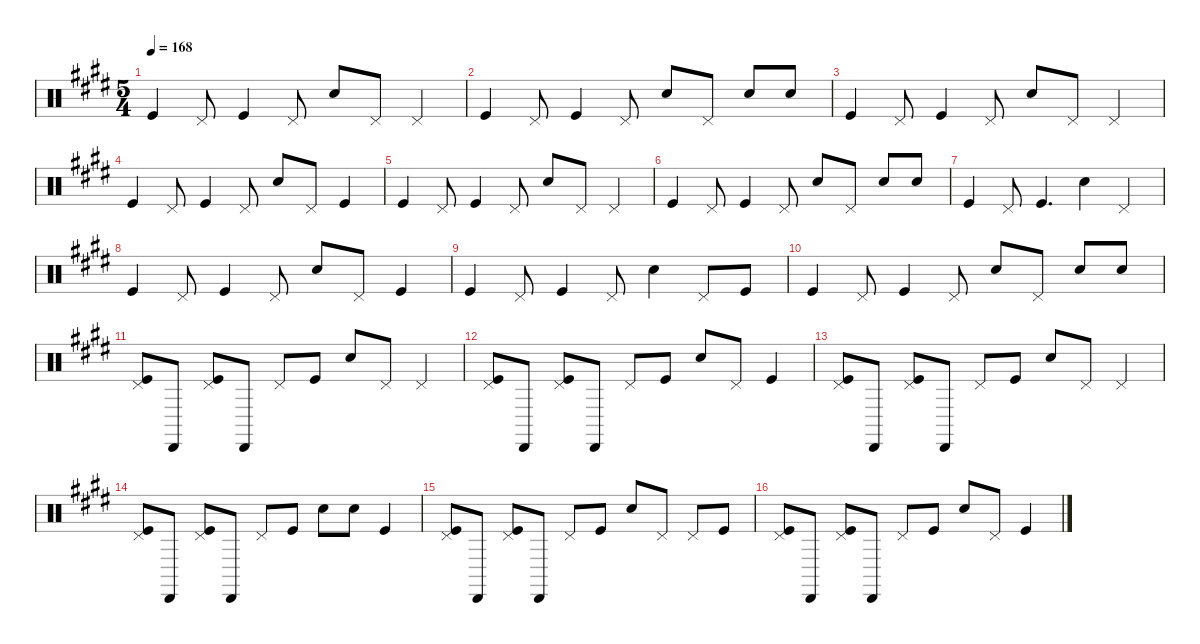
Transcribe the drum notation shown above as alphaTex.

\defaultSystemsLayout 4
\hideDynamics
\bracketExtendMode nobrackets
\singleTrackTrackNamePolicy hidden
\multiTrackTrackNamePolicy hidden
\firstSystemTrackNameMode fullname
\firstSystemTrackNameOrientation horizontal
\otherSystemsTrackNameOrientation horizontal
\track ("Percussion" "drm.") {instrument percussion}
\staff {score}
\articulation defaults
\ts (5 4)
\tempo 168
\clef neutral
\ks c#minor "Kick (hit)"{acc forcenatural}.4{dy f beam Up} "Pedal Hi-Hat (hit)"{acc forcenatural}.8{beam Up} "Kick (hit)"{acc forcenatural}.4{beam Up} "Pedal Hi-Hat (hit)"{acc forcenatural}.8{beam Up} "Snare (hit) 2"{acc forcenatural}.8{beam Up} "Pedal Hi-Hat (hit)"{acc forcenatural}.8{beam Up} "Pedal Hi-Hat (hit)"{acc forcenatural}.4{beam Up}
|
"Kick (hit)"{acc forcenatural}.4{beam Up} "Pedal Hi-Hat (hit)"{acc forcenatural}.8{beam Up} "Kick (hit)"{acc forcenatural}.4{beam Up} "Pedal Hi-Hat (hit)"{acc forcenatural}.8{beam Up} "Snare (hit) 2"{acc forcenatural}.8{beam Up} "Pedal Hi-Hat (hit)"{acc forcenatural}.8{beam Up} "Snare (hit) 2"{acc forcenatural}.8{beam Up} "Snare (hit) 2"{acc forcenatural}.8{beam Up} |
"Kick (hit)"{acc forcenatural}.4{beam Up} "Pedal Hi-Hat (hit)"{acc forcenatural}.8{beam Up} "Kick (hit)"{acc forcenatural}.4{beam Up} "Pedal Hi-Hat (hit)"{acc forcenatural}.8{beam Up} "Snare (hit) 2"{acc forcenatural}.8{beam Up} "Pedal Hi-Hat (hit)"{acc forcenatural}.8{beam Up} "Pedal Hi-Hat (hit)"{acc forcenatural}.4{beam Up} |
"Kick (hit)"{acc forcenatural}.4{beam Up} "Pedal Hi-Hat (hit)"{acc forcenatural}.8{beam Up} "Kick (hit)"{acc forcenatural}.4{beam Up} "Pedal Hi-Hat (hit)"{acc forcenatural}.8{beam Up} "Snare (hit) 2"{acc forcenatural}.8{beam Up} "Pedal Hi-Hat (hit)"{acc forcenatural}.8{beam Up} "Kick (hit)"{acc forcenatural}.4{beam Up} |
"Kick (hit)"{acc forcenatural}.4{beam Up} "Pedal Hi-Hat (hit)"{acc forcenatural}.8{beam Up} "Kick (hit)"{acc forcenatural}.4{beam Up} "Pedal Hi-Hat (hit)"{acc forcenatural}.8{beam Up} "Snare (hit) 2"{acc forcenatural}.8{beam Up} "Pedal Hi-Hat (hit)"{acc forcenatural}.8{beam Up} "Pedal Hi-Hat (hit)"{acc forcenatural}.4{beam Up} |
"Kick (hit)"{acc forcenatural}.4{beam Up} "Pedal Hi-Hat (hit)"{acc forcenatural}.8{beam Up} "Kick (hit)"{acc forcenatural}.4{beam Up} "Pedal Hi-Hat (hit)"{acc forcenatural}.8{beam Up} "Snare (hit) 2"{acc forcenatural}.8{beam Up} "Pedal Hi-Hat (hit)"{acc forcenatural}.8{beam Up} "Snare (hit) 2"{acc forcenatural}.8{beam Up} "Snare (hit) 2"{acc forcenatural}.8{beam Up} |
"Kick (hit)"{acc forcenatural}.4{beam Up} "Pedal Hi-Hat (hit)"{acc forcenatural}.8{beam Up} "Kick (hit)"{acc forcenatural}.4{d beam Up} "Snare (hit) 2"{acc forcenatural}.4{beam Down} "Pedal Hi-Hat (hit)"{acc forcenatural}.4{beam Up} |
"Kick (hit)"{acc forcenatural}.4{beam Up} "Pedal Hi-Hat (hit)"{acc forcenatural}.8{beam Up} "Kick (hit)"{acc forcenatural}.4{beam Up} "Pedal Hi-Hat (hit)"{acc forcenatural}.8{beam Up} "Snare (hit) 2"{acc forcenatural}.8{beam Up} "Pedal Hi-Hat (hit)"{acc forcenatural}.8{beam Up} "Kick (hit)"{acc forcenatural}.4{beam Up} |
"Kick (hit)"{acc forcenatural}.4{beam Up} "Pedal Hi-Hat (hit)"{acc forcenatural}.8{beam Up} "Kick (hit)"{acc forcenatural}.4{beam Up} "Pedal Hi-Hat (hit)"{acc forcenatural}.8{beam Up} "Snare (hit) 2"{acc forcenatural}.4{beam Down} "Pedal Hi-Hat (hit)"{acc forcenatural}.8{beam Up} "Kick (hit)"{acc forcenatural}.8{beam Up} |
"Kick (hit)"{acc forcenatural}.4{beam Up} "Pedal Hi-Hat (hit)"{acc forcenatural}.8{beam Up} "Kick (hit)"{acc forcenatural}.4{beam Up} "Pedal Hi-Hat (hit)"{acc forcenatural}.8{beam Up} "Snare (hit) 2"{acc forcenatural}.8{beam Up} "Pedal Hi-Hat (hit)"{acc forcenatural}.8{beam Up} "Snare (hit) 2"{acc forcenatural}.8{beam Up} "Snare (hit) 2"{acc forcenatural}.8{beam Up} |
("Kick (hit)"{acc forcenatural} "Pedal Hi-Hat (hit)"{acc forcenatural}).8{beam Up} "Cabasa (hit)"{acc forcenatural}.8{dy pp beam Up} ("Kick (hit)"{acc forcenatural} "Pedal Hi-Hat (hit)"{acc forcenatural}).8{dy f beam Up} "Cabasa (hit)"{acc forcenatural}.8{dy pp beam Up} "Pedal Hi-Hat (hit)"{acc forcenatural}.8{dy f beam Up} "Kick (hit)"{acc forcenatural}.8{beam Up} "Snare (hit) 2"{acc forcenatural}.8{beam Up} "Pedal Hi-Hat (hit)"{acc forcenatural}.8{beam Up} "Pedal Hi-Hat (hit)"{acc forcenatural}.4{beam Up} |
("Kick (hit)"{acc forcenatural} "Pedal Hi-Hat (hit)"{acc forcenatural}).8{beam Up} "Cabasa (hit)"{acc forcenatural}.8{dy pp beam Up} ("Kick (hit)"{acc forcenatural} "Pedal Hi-Hat (hit)"{acc forcenatural}).8{dy f beam Up} "Cabasa (hit)"{acc forcenatural}.8{dy pp beam Up} "Pedal Hi-Hat (hit)"{acc forcenatural}.8{dy f beam Up} "Kick (hit)"{acc forcenatural}.8{beam Up} "Snare (hit) 2"{acc forcenatural}.8{beam Up} "Pedal Hi-Hat (hit)"{acc forcenatural}.8{beam Up} "Kick (hit)"{acc forcenatural}.4{beam Up} |
("Kick (hit)"{acc forcenatural} "Pedal Hi-Hat (hit)"{acc forcenatural}).8{beam Up} "Cabasa (hit)"{acc forcenatural}.8{dy pp beam Up} ("Kick (hit)"{acc forcenatural} "Pedal Hi-Hat (hit)"{acc forcenatural}).8{dy f beam Up} "Cabasa (hit)"{acc forcenatural}.8{dy pp beam Up} "Pedal Hi-Hat (hit)"{acc forcenatural}.8{dy f beam Up} "Kick (hit)"{acc forcenatural}.8{beam Up} "Snare (hit) 2"{acc forcenatural}.8{beam Up} "Pedal Hi-Hat (hit)"{acc forcenatural}.8{beam Up} "Pedal Hi-Hat (hit)"{acc forcenatural}.4{beam Up} |
("Kick (hit)"{acc forcenatural} "Pedal Hi-Hat (hit)"{acc forcenatural}).8{beam Up} "Cabasa (hit)"{acc forcenatural}.8{dy pp beam Up} ("Kick (hit)"{acc forcenatural} "Pedal Hi-Hat (hit)"{acc forcenatural}).8{dy f beam Up} "Cabasa (hit)"{acc forcenatural}.8{dy pp beam Up} "Pedal Hi-Hat (hit)"{acc forcenatural}.8{dy f beam Up} "Kick (hit)"{acc forcenatural}.8{beam Up} "Snare (hit) 2"{acc forcenatural}.8{beam Down} "Snare (hit) 2"{acc forcenatural}.8{beam Down} "Kick (hit)"{acc forcenatural}.4{beam Up} |
("Kick (hit)"{acc forcenatural} "Pedal Hi-Hat (hit)"{acc forcenatural}).8{beam Up} "Cabasa (hit)"{acc forcenatural}.8{dy pp beam Up} ("Kick (hit)"{acc forcenatural} "Pedal Hi-Hat (hit)"{acc forcenatural}).8{dy f beam Up} "Cabasa (hit)"{acc forcenatural}.8{dy pp beam Up} "Pedal Hi-Hat (hit)"{acc forcenatural}.8{dy f beam Up} "Kick (hit)"{acc forcenatural}.8{beam Up} "Snare (hit) 2"{acc forcenatural}.8{beam Up} "Pedal Hi-Hat (hit)"{acc forcenatural}.8{beam Up} "Pedal Hi-Hat (hit)"{acc forcenatural}.8{beam Up} "Kick (hit)"{acc forcenatural}.8{beam Up} |
("Kick (hit)"{acc forcenatural} "Pedal Hi-Hat (hit)"{acc forcenatural}).8{beam Up} "Cabasa (hit)"{acc forcenatural}.8{dy pp beam Up} ("Kick (hit)"{acc forcenatural} "Pedal Hi-Hat (hit)"{acc forcenatural}).8{dy f beam Up} "Cabasa (hit)"{acc forcenatural}.8{dy pp beam Up} "Pedal Hi-Hat (hit)"{acc forcenatural}.8{dy f beam Up} "Kick (hit)"{acc forcenatural}.8{beam Up} "Snare (hit) 2"{acc forcenatural}.8{beam Up} "Pedal Hi-Hat (hit)"{acc forcenatural}.8{beam Up} "Kick (hit)"{acc forcenatural}.4{beam Up}
